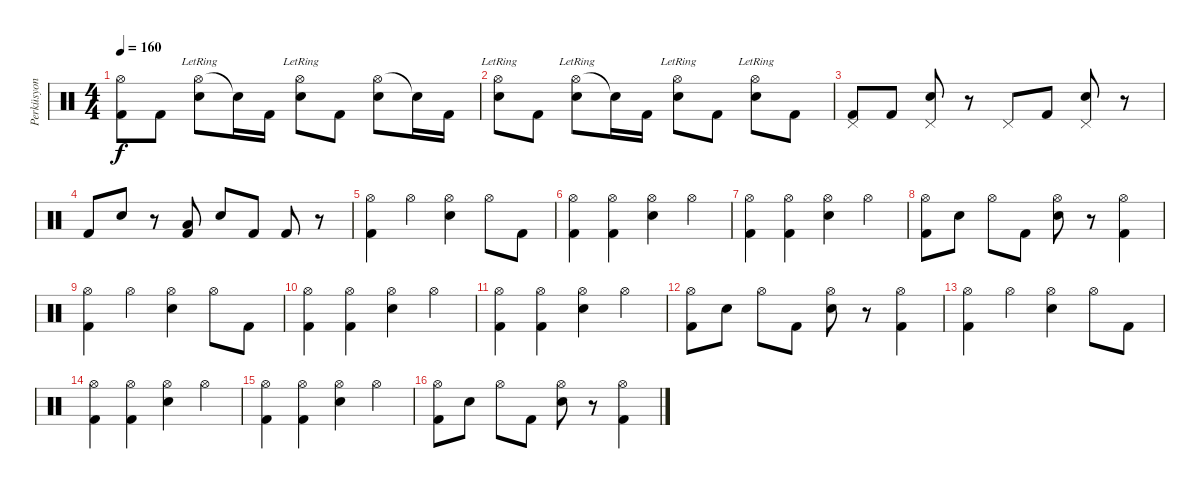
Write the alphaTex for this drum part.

\track ("Perküsyon" "Perküsyon") {instrument percussion}
\staff {score}
\articulation defaults
\ts (4 4)
\tempo 160
\clef neutral
\ks c
("Hi-Hat (open)" "Kick (hit) 2").8{dy f} "Kick (hit) 2".8 ("Hi-Hat (open)" "Electric Snare (hit)"{lr}).8 "Snare (hit)"{t}.16 "Kick (hit) 2".16 ("Hi-Hat (open)" "Electric Snare (hit)"{lr}).8 "Kick (hit) 2".8 ("Hi-Hat (open)" "Electric Snare (hit)").8 "Snare (hit)"{t}.16 "Kick (hit) 2".16 |
("Hi-Hat (open)" "Electric Snare (hit)"{lr}).8 "Kick (hit) 2".8 ("Hi-Hat (open)" "Electric Snare (hit)"{lr}).8 "Snare (hit)"{t}.16 "Kick (hit) 2".16 ("Hi-Hat (open)" "Electric Snare (hit)"{lr}).8 "Kick (hit) 2".8 ("Hi-Hat (open)" "Electric Snare (hit)"{lr}).8 "Kick (hit) 2".8 |
("Pedal Hi-Hat (hit)" "Kick (hit) 2").8 "Kick (hit) 2".8 ("Pedal Hi-Hat (hit)" "Electric Snare (hit)").8 r.8 "Pedal Hi-Hat (hit)".8 "Kick (hit) 2".8 ("Pedal Hi-Hat (hit)" "Electric Snare (hit)").8 r.8 |
"Kick (hit) 2".8 "Electric Snare (hit)".8 r.8 ("Low Tom (hit)" "Kick (hit) 2").8 "Electric Snare (hit)".8 "Kick (hit) 2".8 "Kick (hit) 2".8 r.8 |
("Hi-Hat (open)" "Kick (hit) 2").4 "Hi-Hat (open)".4 ("Hi-Hat (open)" "Electric Snare (hit)").4 "Hi-Hat (open)".8 "Kick (hit) 2".8 |
("Hi-Hat (open)" "Kick (hit) 2").4 ("Hi-Hat (open)" "Kick (hit) 2").4 ("Hi-Hat (open)" "Electric Snare (hit)").4 "Hi-Hat (open)".4 |
("Hi-Hat (open)" "Kick (hit) 2").4 ("Hi-Hat (open)" "Kick (hit) 2").4 ("Hi-Hat (open)" "Electric Snare (hit)").4 "Hi-Hat (open)".4 |
("Hi-Hat (open)" "Kick (hit) 2").8 "Electric Snare (hit)".8 "Hi-Hat (open)".8 "Kick (hit) 2".8 ("Hi-Hat (open)" "Electric Snare (hit)").8 r.8 ("Hi-Hat (open)" "Kick (hit) 2").4 |
("Hi-Hat (open)" "Kick (hit) 2").4 "Hi-Hat (open)".4 ("Hi-Hat (open)" "Electric Snare (hit)").4 "Hi-Hat (open)".8 "Kick (hit) 2".8 |
("Hi-Hat (open)" "Kick (hit) 2").4 ("Hi-Hat (open)" "Kick (hit) 2").4 ("Hi-Hat (open)" "Electric Snare (hit)").4 "Hi-Hat (open)".4 |
("Hi-Hat (open)" "Kick (hit) 2").4 ("Hi-Hat (open)" "Kick (hit) 2").4 ("Hi-Hat (open)" "Electric Snare (hit)").4 "Hi-Hat (open)".4 |
("Hi-Hat (open)" "Kick (hit) 2").8 "Electric Snare (hit)".8 "Hi-Hat (open)".8 "Kick (hit) 2".8 ("Hi-Hat (open)" "Electric Snare (hit)").8 r.8 ("Hi-Hat (open)" "Kick (hit) 2").4 |
("Hi-Hat (open)" "Kick (hit) 2").4 "Hi-Hat (open)".4 ("Hi-Hat (open)" "Electric Snare (hit)").4 "Hi-Hat (open)".8 "Kick (hit) 2".8 |
("Hi-Hat (open)" "Kick (hit) 2").4 ("Hi-Hat (open)" "Kick (hit) 2").4 ("Hi-Hat (open)" "Electric Snare (hit)").4 "Hi-Hat (open)".4 |
("Hi-Hat (open)" "Kick (hit) 2").4 ("Hi-Hat (open)" "Kick (hit) 2").4 ("Hi-Hat (open)" "Electric Snare (hit)").4 "Hi-Hat (open)".4 |
("Hi-Hat (open)" "Kick (hit) 2").8 "Electric Snare (hit)".8 "Hi-Hat (open)".8 "Kick (hit) 2".8 ("Hi-Hat (open)" "Electric Snare (hit)").8 r.8 ("Hi-Hat (open)" "Kick (hit) 2").4
